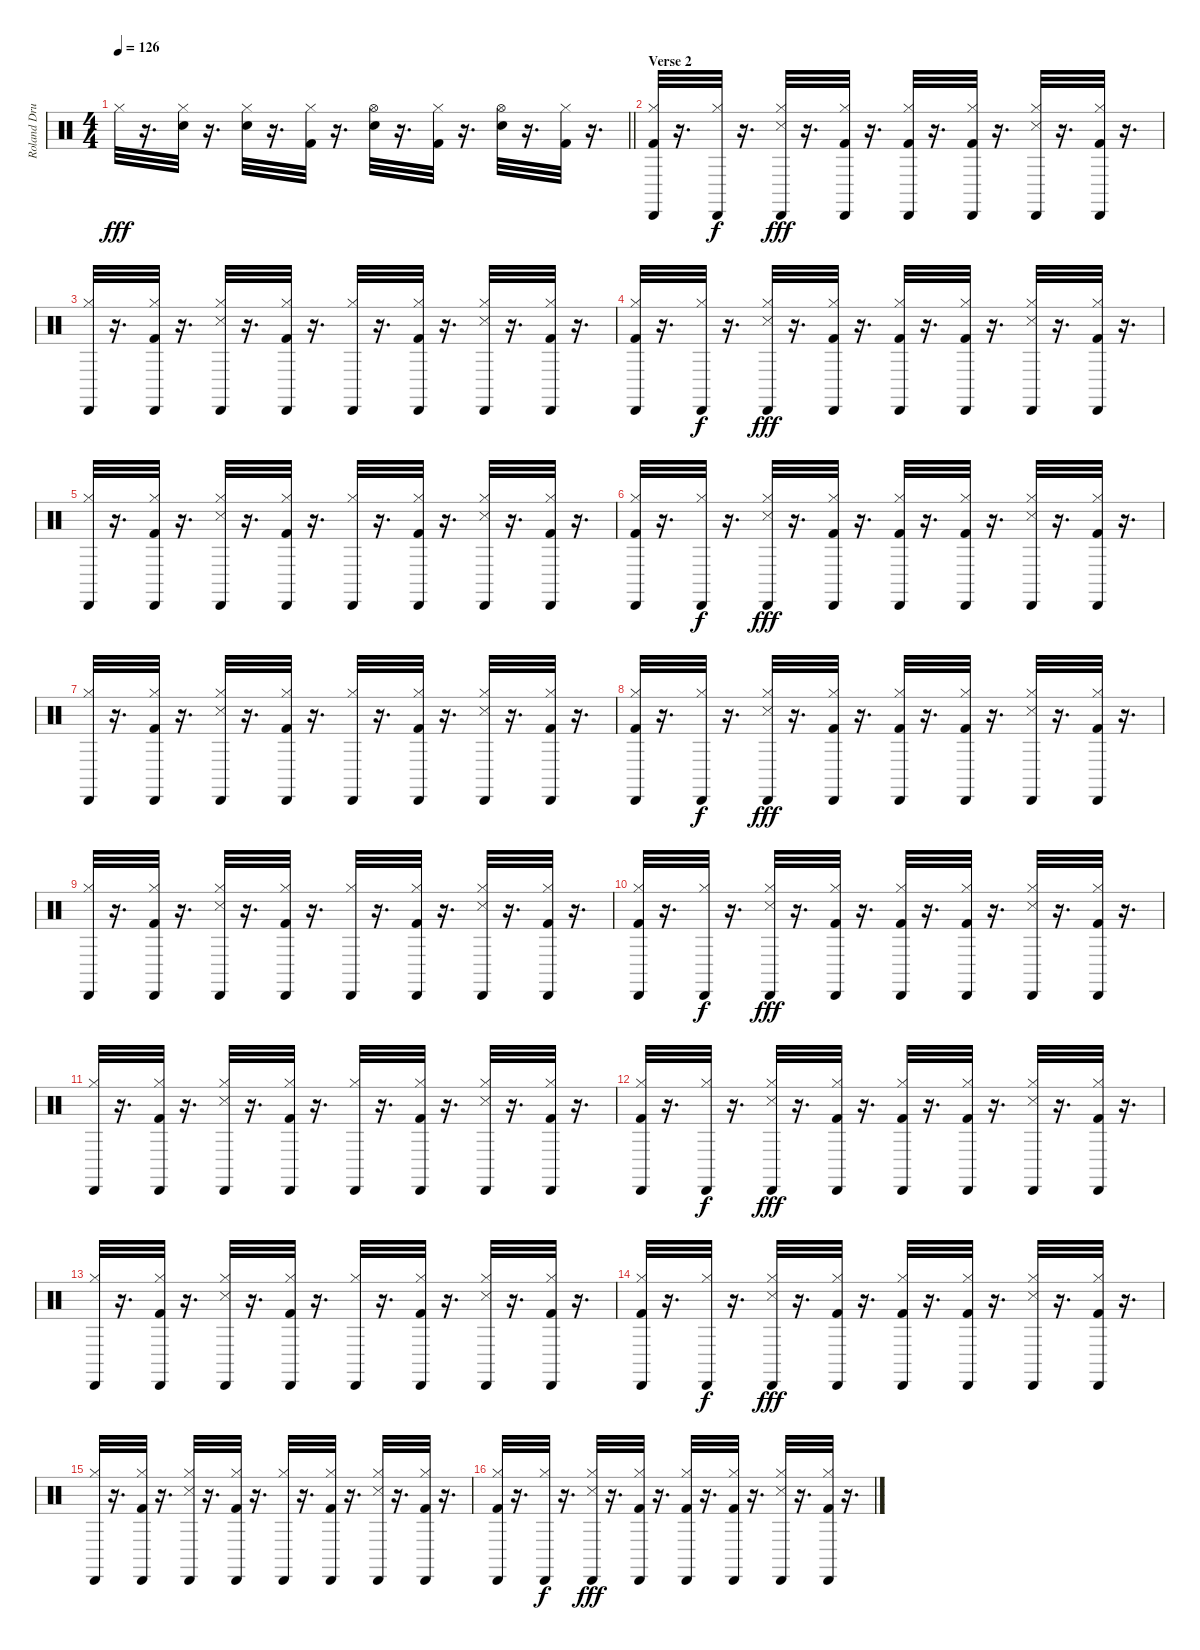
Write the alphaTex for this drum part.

\track ("Roland Drums" "Roland Dru") {instrument percussion}
\staff {score}
\articulation defaults
\ts (4 4)
\tempo 126
\clef neutral
\barLineRight lightlight
\ks c "Hi-Hat (closed)".32{dy fff}
r.16{d} ("Snare (hit) 2" "Hi-Hat (closed)").32 r.16{d} ("Snare (hit) 2" "Hi-Hat (closed)").32 r.16{d} ("Kick (hit) 2" "Hi-Hat (closed)").32 r.16{d} ("Snare (hit) 2" "Hi-Hat (open)").32 r.16{d} ("Kick (hit) 2" "Hi-Hat (closed)").32 r.16{d} ("Snare (hit) 2" "Hi-Hat (open)").32 r.16{d} ("Kick (hit) 2" "Hi-Hat (closed)").32 r.16{d} |
\section ("" "Verse 2")
("Kick (hit) 2" "Hi-Hat (closed)" "Cabasa (hit)").32 r.16{d} ("Hi-Hat (closed)" "Cabasa (hit)").32{dy f} r.16{d} ("Hi-Hat (closed)" "Snare (side stick) 3" "Cabasa (hit)").32{dy fff} r.16{d} ("Kick (hit) 2" "Hi-Hat (closed)" "Cabasa (hit)").32 r.16{d} ("Kick (hit) 2" "Hi-Hat (closed)" "Cabasa (hit)").32 r.16{d} ("Kick (hit) 2" "Hi-Hat (closed)" "Cabasa (hit)").32 r.16{d} ("Hi-Hat (closed)" "Snare (side stick) 3" "Cabasa (hit)").32 r.16{d} ("Kick (hit) 2" "Hi-Hat (closed)" "Cabasa (hit)").32 r.16{d} |
("Hi-Hat (closed)" "Cabasa (hit)").32 r.16{d} ("Kick (hit) 2" "Hi-Hat (closed)" "Cabasa (hit)").32 r.16{d} ("Hi-Hat (closed)" "Snare (side stick) 3" "Cabasa (hit)").32 r.16{d} ("Kick (hit) 2" "Hi-Hat (closed)" "Cabasa (hit)").32 r.16{d} ("Hi-Hat (closed)" "Cabasa (hit)").32 r.16{d} ("Kick (hit) 2" "Hi-Hat (closed)" "Cabasa (hit)").32 r.16{d} ("Hi-Hat (closed)" "Snare (side stick) 3" "Cabasa (hit)").32 r.16{d} ("Kick (hit) 2" "Hi-Hat (closed)" "Cabasa (hit)").32 r.16{d} |
("Kick (hit) 2" "Hi-Hat (closed)" "Cabasa (hit)").32 r.16{d} ("Hi-Hat (closed)" "Cabasa (hit)").32{dy f} r.16{d} ("Hi-Hat (closed)" "Snare (side stick) 3" "Cabasa (hit)").32{dy fff} r.16{d} ("Kick (hit) 2" "Hi-Hat (closed)" "Cabasa (hit)").32 r.16{d} ("Kick (hit) 2" "Hi-Hat (closed)" "Cabasa (hit)").32 r.16{d} ("Kick (hit) 2" "Hi-Hat (closed)" "Cabasa (hit)").32 r.16{d} ("Hi-Hat (closed)" "Snare (side stick) 3" "Cabasa (hit)").32 r.16{d} ("Kick (hit) 2" "Hi-Hat (closed)" "Cabasa (hit)").32 r.16{d} |
("Hi-Hat (closed)" "Cabasa (hit)").32 r.16{d} ("Kick (hit) 2" "Hi-Hat (closed)" "Cabasa (hit)").32 r.16{d} ("Hi-Hat (closed)" "Snare (side stick) 3" "Cabasa (hit)").32 r.16{d} ("Kick (hit) 2" "Hi-Hat (closed)" "Cabasa (hit)").32 r.16{d} ("Hi-Hat (closed)" "Cabasa (hit)").32 r.16{d} ("Kick (hit) 2" "Hi-Hat (closed)" "Cabasa (hit)").32 r.16{d} ("Hi-Hat (closed)" "Snare (side stick) 3" "Cabasa (hit)").32 r.16{d} ("Kick (hit) 2" "Hi-Hat (closed)" "Cabasa (hit)").32 r.16{d} |
("Kick (hit) 2" "Hi-Hat (closed)" "Cabasa (hit)").32 r.16{d} ("Hi-Hat (closed)" "Cabasa (hit)").32{dy f} r.16{d} ("Hi-Hat (closed)" "Snare (side stick) 3" "Cabasa (hit)").32{dy fff} r.16{d} ("Kick (hit) 2" "Hi-Hat (closed)" "Cabasa (hit)").32 r.16{d} ("Kick (hit) 2" "Hi-Hat (closed)" "Cabasa (hit)").32 r.16{d} ("Kick (hit) 2" "Hi-Hat (closed)" "Cabasa (hit)").32 r.16{d} ("Hi-Hat (closed)" "Snare (side stick) 3" "Cabasa (hit)").32 r.16{d} ("Kick (hit) 2" "Hi-Hat (closed)" "Cabasa (hit)").32 r.16{d} |
("Hi-Hat (closed)" "Cabasa (hit)").32 r.16{d} ("Kick (hit) 2" "Hi-Hat (closed)" "Cabasa (hit)").32 r.16{d} ("Hi-Hat (closed)" "Snare (side stick) 3" "Cabasa (hit)").32 r.16{d} ("Kick (hit) 2" "Hi-Hat (closed)" "Cabasa (hit)").32 r.16{d} ("Hi-Hat (closed)" "Cabasa (hit)").32 r.16{d} ("Kick (hit) 2" "Hi-Hat (closed)" "Cabasa (hit)").32 r.16{d} ("Hi-Hat (closed)" "Snare (side stick) 3" "Cabasa (hit)").32 r.16{d} ("Kick (hit) 2" "Hi-Hat (closed)" "Cabasa (hit)").32 r.16{d} |
("Kick (hit) 2" "Hi-Hat (closed)" "Cabasa (hit)").32 r.16{d} ("Hi-Hat (closed)" "Cabasa (hit)").32{dy f} r.16{d} ("Hi-Hat (closed)" "Snare (side stick) 3" "Cabasa (hit)").32{dy fff} r.16{d} ("Kick (hit) 2" "Hi-Hat (closed)" "Cabasa (hit)").32 r.16{d} ("Kick (hit) 2" "Hi-Hat (closed)" "Cabasa (hit)").32 r.16{d} ("Kick (hit) 2" "Hi-Hat (closed)" "Cabasa (hit)").32 r.16{d} ("Hi-Hat (closed)" "Snare (side stick) 3" "Cabasa (hit)").32 r.16{d} ("Kick (hit) 2" "Hi-Hat (closed)" "Cabasa (hit)").32 r.16{d} |
("Hi-Hat (closed)" "Cabasa (hit)").32 r.16{d} ("Kick (hit) 2" "Hi-Hat (closed)" "Cabasa (hit)").32 r.16{d} ("Hi-Hat (closed)" "Snare (side stick) 3" "Cabasa (hit)").32 r.16{d} ("Kick (hit) 2" "Hi-Hat (closed)" "Cabasa (hit)").32 r.16{d} ("Hi-Hat (closed)" "Cabasa (hit)").32 r.16{d} ("Kick (hit) 2" "Hi-Hat (closed)" "Cabasa (hit)").32 r.16{d} ("Hi-Hat (closed)" "Snare (side stick) 3" "Cabasa (hit)").32 r.16{d} ("Kick (hit) 2" "Hi-Hat (closed)" "Cabasa (hit)").32 r.16{d} |
("Kick (hit) 2" "Hi-Hat (closed)" "Cabasa (hit)").32 r.16{d} ("Hi-Hat (closed)" "Cabasa (hit)").32{dy f} r.16{d} ("Hi-Hat (closed)" "Snare (side stick) 3" "Cabasa (hit)").32{dy fff} r.16{d} ("Kick (hit) 2" "Hi-Hat (closed)" "Cabasa (hit)").32 r.16{d} ("Kick (hit) 2" "Hi-Hat (closed)" "Cabasa (hit)").32 r.16{d} ("Kick (hit) 2" "Hi-Hat (closed)" "Cabasa (hit)").32 r.16{d} ("Hi-Hat (closed)" "Snare (side stick) 3" "Cabasa (hit)").32 r.16{d} ("Kick (hit) 2" "Hi-Hat (closed)" "Cabasa (hit)").32 r.16{d} |
("Hi-Hat (closed)" "Cabasa (hit)").32 r.16{d} ("Kick (hit) 2" "Hi-Hat (closed)" "Cabasa (hit)").32 r.16{d} ("Hi-Hat (closed)" "Snare (side stick) 3" "Cabasa (hit)").32 r.16{d} ("Kick (hit) 2" "Hi-Hat (closed)" "Cabasa (hit)").32 r.16{d} ("Hi-Hat (closed)" "Cabasa (hit)").32 r.16{d} ("Kick (hit) 2" "Hi-Hat (closed)" "Cabasa (hit)").32 r.16{d} ("Hi-Hat (closed)" "Snare (side stick) 3" "Cabasa (hit)").32 r.16{d} ("Kick (hit) 2" "Hi-Hat (closed)" "Cabasa (hit)").32 r.16{d} |
("Kick (hit) 2" "Hi-Hat (closed)" "Cabasa (hit)").32 r.16{d} ("Hi-Hat (closed)" "Cabasa (hit)").32{dy f} r.16{d} ("Hi-Hat (closed)" "Snare (side stick) 3" "Cabasa (hit)").32{dy fff} r.16{d} ("Kick (hit) 2" "Hi-Hat (closed)" "Cabasa (hit)").32 r.16{d} ("Kick (hit) 2" "Hi-Hat (closed)" "Cabasa (hit)").32 r.16{d} ("Kick (hit) 2" "Hi-Hat (closed)" "Cabasa (hit)").32 r.16{d} ("Hi-Hat (closed)" "Snare (side stick) 3" "Cabasa (hit)").32 r.16{d} ("Kick (hit) 2" "Hi-Hat (closed)" "Cabasa (hit)").32 r.16{d} |
("Hi-Hat (closed)" "Cabasa (hit)").32 r.16{d} ("Kick (hit) 2" "Hi-Hat (closed)" "Cabasa (hit)").32 r.16{d} ("Hi-Hat (closed)" "Snare (side stick) 3" "Cabasa (hit)").32 r.16{d} ("Kick (hit) 2" "Hi-Hat (closed)" "Cabasa (hit)").32 r.16{d} ("Hi-Hat (closed)" "Cabasa (hit)").32 r.16{d} ("Kick (hit) 2" "Hi-Hat (closed)" "Cabasa (hit)").32 r.16{d} ("Hi-Hat (closed)" "Snare (side stick) 3" "Cabasa (hit)").32 r.16{d} ("Kick (hit) 2" "Hi-Hat (closed)" "Cabasa (hit)").32 r.16{d} |
("Kick (hit) 2" "Hi-Hat (closed)" "Cabasa (hit)").32 r.16{d} ("Hi-Hat (closed)" "Cabasa (hit)").32{dy f} r.16{d} ("Hi-Hat (closed)" "Snare (side stick) 3" "Cabasa (hit)").32{dy fff} r.16{d} ("Kick (hit) 2" "Hi-Hat (closed)" "Cabasa (hit)").32 r.16{d} ("Kick (hit) 2" "Hi-Hat (closed)" "Cabasa (hit)").32 r.16{d} ("Kick (hit) 2" "Hi-Hat (closed)" "Cabasa (hit)").32 r.16{d} ("Hi-Hat (closed)" "Snare (side stick) 3" "Cabasa (hit)").32 r.16{d} ("Kick (hit) 2" "Hi-Hat (closed)" "Cabasa (hit)").32 r.16{d} |
("Hi-Hat (closed)" "Cabasa (hit)").32 r.16{d} ("Kick (hit) 2" "Hi-Hat (closed)" "Cabasa (hit)").32 r.16{d} ("Hi-Hat (closed)" "Snare (side stick) 3" "Cabasa (hit)").32 r.16{d} ("Kick (hit) 2" "Hi-Hat (closed)" "Cabasa (hit)").32 r.16{d} ("Hi-Hat (closed)" "Cabasa (hit)").32 r.16{d} ("Kick (hit) 2" "Hi-Hat (closed)" "Cabasa (hit)").32 r.16{d} ("Hi-Hat (closed)" "Snare (side stick) 3" "Cabasa (hit)").32 r.16{d} ("Kick (hit) 2" "Hi-Hat (closed)" "Cabasa (hit)").32 r.16{d} |
("Kick (hit) 2" "Hi-Hat (closed)" "Cabasa (hit)").32 r.16{d} ("Hi-Hat (closed)" "Cabasa (hit)").32{dy f} r.16{d} ("Hi-Hat (closed)" "Snare (side stick) 3" "Cabasa (hit)").32{dy fff} r.16{d} ("Kick (hit) 2" "Hi-Hat (closed)" "Cabasa (hit)").32 r.16{d} ("Kick (hit) 2" "Hi-Hat (closed)" "Cabasa (hit)").32 r.16{d} ("Kick (hit) 2" "Hi-Hat (closed)" "Cabasa (hit)").32 r.16{d} ("Hi-Hat (closed)" "Snare (side stick) 3" "Cabasa (hit)").32 r.16{d} ("Kick (hit) 2" "Hi-Hat (closed)" "Cabasa (hit)").32 r.16{d}
